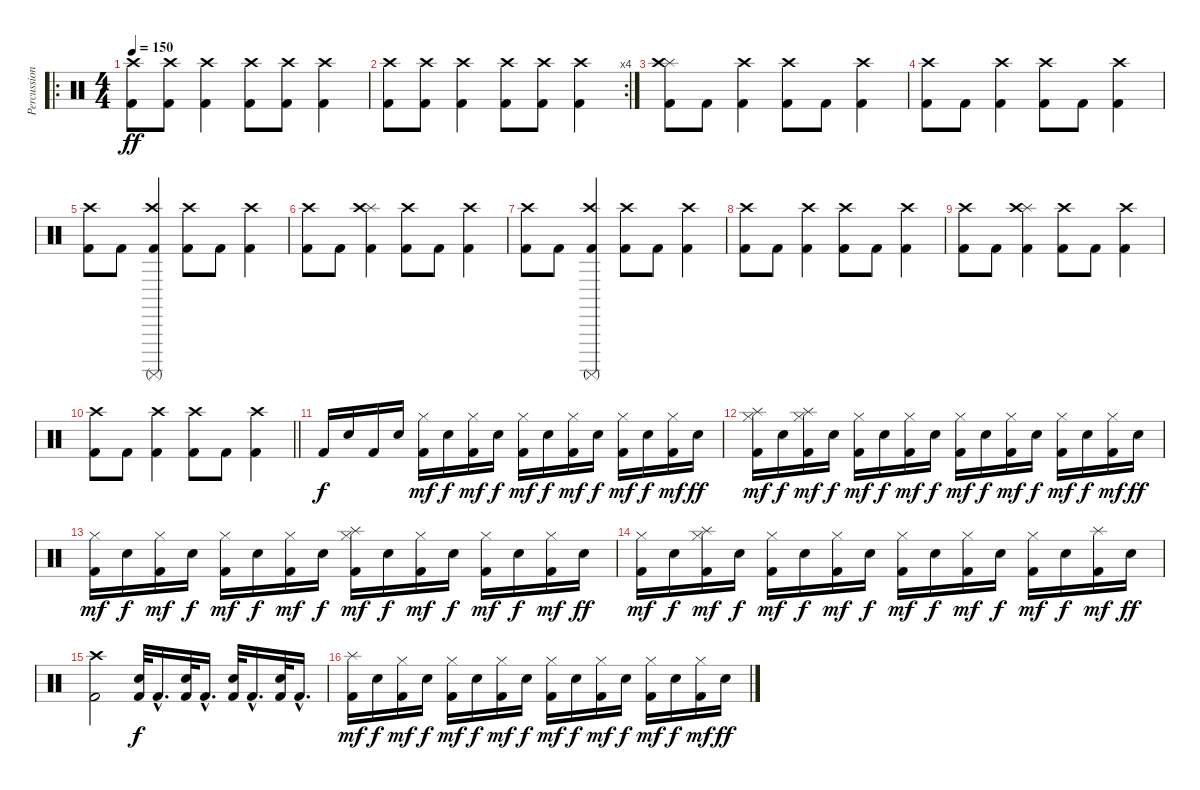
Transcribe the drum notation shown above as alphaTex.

\track ("Percussion" "Percussion") {instrument percussion}
\staff {score}
\articulation defaults
\ro
\ts (4 4)
\tempo 150
\clef neutral
\ks c
("Crash high (hit)" "Kick (hit) 2").8{dy ff} ("Crash high (hit)" "Kick (hit) 2").8 ("Crash high (hit)" "Kick (hit) 2").4 ("Crash high (hit)" "Kick (hit) 2").8 ("Crash high (hit)" "Kick (hit) 2").8 ("Crash high (hit)" "Kick (hit) 2").4 |
\rc 4
("Crash high (hit)" "Kick (hit) 2").8 ("Crash high (hit)" "Kick (hit) 2").8 ("Crash high (hit)" "Kick (hit) 2").4 ("Crash high (hit)" "Kick (hit) 2").8 ("Crash high (hit)" "Kick (hit) 2").8 ("Crash high (hit)" "Kick (hit) 2").4 |
("Splash (hit)" "Crash high (hit)" "Kick (hit) 2").8 "Kick (hit) 2".8 ("Crash high (hit)" "Kick (hit) 2").4 ("Crash high (hit)" "Kick (hit) 2").8 "Kick (hit) 2".8 ("Crash high (hit)" "Kick (hit) 2").4 |
("Crash high (hit)" "Kick (hit) 2").8 "Kick (hit) 2".8 ("Crash high (hit)" "Kick (hit) 2").4 ("Crash high (hit)" "Kick (hit) 2").8 "Kick (hit) 2".8 ("Crash high (hit)" "Kick (hit) 2").4 |
("Crash high (hit)" "Kick (hit) 2").8 "Kick (hit) 2".8 ("Crash high (hit)" "Surdo (mute)" "Kick (hit) 2").4 ("Crash high (hit)" "Kick (hit) 2").8 "Kick (hit) 2".8 ("Crash high (hit)" "Kick (hit) 2").4 |
("Crash high (hit)" "Kick (hit) 2").8 "Kick (hit) 2".8 ("Splash (hit)" "Crash high (hit)" "Kick (hit) 2").4 ("Crash high (hit)" "Kick (hit) 2").8 "Kick (hit) 2".8 ("Crash high (hit)" "Kick (hit) 2").4 |
("Crash high (hit)" "Kick (hit) 2").8 "Kick (hit) 2".8 ("Crash high (hit)" "Surdo (mute)" "Kick (hit) 2").4 ("Crash high (hit)" "Kick (hit) 2").8 "Kick (hit) 2".8 ("Crash high (hit)" "Kick (hit) 2").4 |
("Crash high (hit)" "Kick (hit) 2").8 "Kick (hit) 2".8 ("Crash high (hit)" "Kick (hit) 2").4 ("Crash high (hit)" "Kick (hit) 2").8 "Kick (hit) 2".8 ("Crash high (hit)" "Kick (hit) 2").4 |
("Crash high (hit)" "Kick (hit) 2").8 "Kick (hit) 2".8 ("Splash (hit)" "Crash high (hit)" "Kick (hit) 2").4 ("Crash high (hit)" "Kick (hit) 2").8 "Kick (hit) 2".8 ("Crash high (hit)" "Kick (hit) 2").4 |
\barLineRight lightlight
("Crash high (hit)" "Kick (hit) 2").8 "Kick (hit) 2".8 ("Crash high (hit)" "Kick (hit) 2").4 ("Crash high (hit)" "Kick (hit) 2").8 "Kick (hit) 2".8 ("Crash high (hit)" "Kick (hit) 2").4 |
"Kick (hit) 2".16{dy f} "Electric Snare (hit)".16 "Kick (hit) 2".16 "Electric Snare (hit)".16 ("Hi-Hat (closed)" "Kick (hit) 2").16{dy mf} "Electric Snare (hit)".16{dy f} ("Hi-Hat (closed)" "Kick (hit) 2").16{dy mf} "Electric Snare (hit)".16{dy f} ("Hi-Hat (closed)" "Kick (hit) 2").16{dy mf} "Electric Snare (hit)".16{dy f} ("Hi-Hat (closed)" "Kick (hit) 2").16{dy mf} "Electric Snare (hit)".16{dy f} ("Hi-Hat (closed)" "Kick (hit) 2").16{dy mf} "Electric Snare (hit)".16{dy f} ("Hi-Hat (closed)" "Kick (hit) 2").16{dy mf} "Electric Snare (hit)".16{dy ff} |
("Splash (hit)" "Hi-Hat (closed)" "Kick (hit) 2").16{dy mf} "Electric Snare (hit)".16{dy f} ("Splash (hit)" "Hi-Hat (closed)" "Kick (hit) 2").16{dy mf} "Electric Snare (hit)".16{dy f} ("Hi-Hat (closed)" "Kick (hit) 2").16{dy mf} "Electric Snare (hit)".16{dy f} ("Hi-Hat (closed)" "Kick (hit) 2").16{dy mf} "Electric Snare (hit)".16{dy f} ("Hi-Hat (closed)" "Kick (hit) 2").16{dy mf} "Electric Snare (hit)".16{dy f} ("Hi-Hat (closed)" "Kick (hit) 2").16{dy mf} "Electric Snare (hit)".16{dy f} ("Hi-Hat (closed)" "Kick (hit) 2").16{dy mf} "Electric Snare (hit)".16{dy f} ("Hi-Hat (closed)" "Kick (hit) 2").16{dy mf} "Electric Snare (hit)".16{dy ff} |
("Hi-Hat (closed)" "Kick (hit) 2").16{dy mf} "Electric Snare (hit)".16{dy f} ("Hi-Hat (closed)" "Kick (hit) 2").16{dy mf} "Electric Snare (hit)".16{dy f} ("Hi-Hat (closed)" "Kick (hit) 2").16{dy mf} "Electric Snare (hit)".16{dy f} ("Hi-Hat (closed)" "Kick (hit) 2").16{dy mf} "Electric Snare (hit)".16{dy f} ("Splash (hit)" "Hi-Hat (closed)" "Kick (hit) 2").16{dy mf} "Electric Snare (hit)".16{dy f} ("Hi-Hat (closed)" "Kick (hit) 2").16{dy mf} "Electric Snare (hit)".16{dy f} ("Hi-Hat (closed)" "Kick (hit) 2").16{dy mf} "Electric Snare (hit)".16{dy f} ("Hi-Hat (closed)" "Kick (hit) 2").16{dy mf} "Electric Snare (hit)".16{dy ff} |
("Hi-Hat (closed)" "Kick (hit) 2").16{dy mf} "Electric Snare (hit)".16{dy f} ("Splash (hit)" "Hi-Hat (closed)" "Kick (hit) 2").16{dy mf} "Electric Snare (hit)".16{dy f} ("Hi-Hat (closed)" "Kick (hit) 2").16{dy mf} "Electric Snare (hit)".16{dy f} ("Hi-Hat (closed)" "Kick (hit) 2").16{dy mf} "Electric Snare (hit)".16{dy f} ("Hi-Hat (closed)" "Kick (hit) 2").16{dy mf} "Electric Snare (hit)".16{dy f} ("Hi-Hat (closed)" "Kick (hit) 2").16{dy mf} "Electric Snare (hit)".16{dy f} ("Hi-Hat (closed)" "Kick (hit) 2").16{dy mf} "Electric Snare (hit)".16{dy f} ("Splash (hit)" "Kick (hit) 2").16{dy mf} "Electric Snare (hit)".16{dy ff} |
("Crash high (hit)" "Kick (hit) 2").2 ("Snare (hit) 2" "Kick (hit) 2").32{dy f} "Kick (hit) 2"{hac}.16{d} ("Snare (hit) 2" "Kick (hit) 2").32 "Kick (hit) 2"{hac}.16{d} ("Snare (hit) 2" "Kick (hit) 2").32 "Kick (hit) 2"{hac}.16{d} ("Snare (hit) 2" "Kick (hit) 2").32 "Kick (hit) 2"{hac}.16{d} |
("Splash (hit)" "Kick (hit) 2").16{dy mf} "Electric Snare (hit)".16{dy f} ("Hi-Hat (closed)" "Kick (hit) 2").16{dy mf} "Electric Snare (hit)".16{dy f} ("Hi-Hat (closed)" "Kick (hit) 2").16{dy mf} "Electric Snare (hit)".16{dy f} ("Hi-Hat (closed)" "Kick (hit) 2").16{dy mf} "Electric Snare (hit)".16{dy f} ("Hi-Hat (closed)" "Kick (hit) 2").16{dy mf} "Electric Snare (hit)".16{dy f} ("Hi-Hat (closed)" "Kick (hit) 2").16{dy mf} "Electric Snare (hit)".16{dy f} ("Hi-Hat (closed)" "Kick (hit) 2").16{dy mf} "Electric Snare (hit)".16{dy f} ("Hi-Hat (closed)" "Kick (hit) 2").16{dy mf} "Electric Snare (hit)".16{dy ff}
